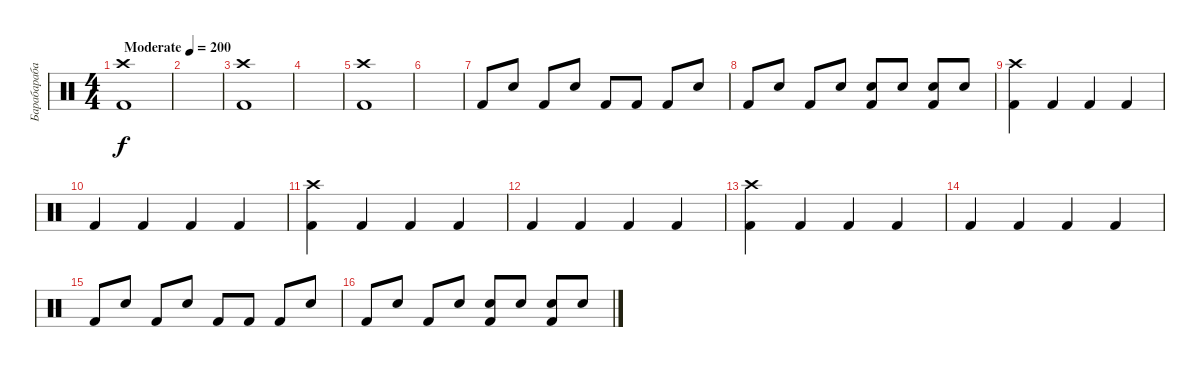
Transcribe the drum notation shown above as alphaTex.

\track ("Барабарабаны" "Барабараба") {instrument percussion}
\staff {score}
\articulation defaults
\ts (4 4)
\tempo (200 "Moderate")
\clef neutral
\ks c
("Crash high (hit)" "Kick (hit) 2").1{dy f} |
|
("Crash high (hit)" "Kick (hit) 2").1 |
|
("Crash high (hit)" "Kick (hit) 2").1 |
|
"Kick (hit) 2".8 "Electric Snare (hit)".8 "Kick (hit) 2".8 "Electric Snare (hit)".8 "Kick (hit) 2".8 "Kick (hit) 2".8 "Kick (hit) 2".8 "Electric Snare (hit)".8 |
"Kick (hit) 2".8 "Electric Snare (hit)".8 "Kick (hit) 2".8 "Electric Snare (hit)".8 ("Electric Snare (hit)" "Kick (hit) 2").8 "Electric Snare (hit)".8 ("Electric Snare (hit)" "Kick (hit) 2").8 "Electric Snare (hit)".8 |
("Crash high (hit)" "Kick (hit) 2").4 "Kick (hit) 2".4 "Kick (hit) 2".4 "Kick (hit) 2".4 |
"Kick (hit) 2".4 "Kick (hit) 2".4 "Kick (hit) 2".4 "Kick (hit) 2".4 |
("Crash high (hit)" "Kick (hit) 2").4 "Kick (hit) 2".4 "Kick (hit) 2".4 "Kick (hit) 2".4 |
"Kick (hit) 2".4 "Kick (hit) 2".4 "Kick (hit) 2".4 "Kick (hit) 2".4 |
("Crash high (hit)" "Kick (hit) 2").4 "Kick (hit) 2".4 "Kick (hit) 2".4 "Kick (hit) 2".4 |
"Kick (hit) 2".4 "Kick (hit) 2".4 "Kick (hit) 2".4 "Kick (hit) 2".4 |
"Kick (hit) 2".8 "Electric Snare (hit)".8 "Kick (hit) 2".8 "Electric Snare (hit)".8 "Kick (hit) 2".8 "Kick (hit) 2".8 "Kick (hit) 2".8 "Electric Snare (hit)".8 |
"Kick (hit) 2".8 "Electric Snare (hit)".8 "Kick (hit) 2".8 "Electric Snare (hit)".8 ("Electric Snare (hit)" "Kick (hit) 2").8 "Electric Snare (hit)".8 ("Electric Snare (hit)" "Kick (hit) 2").8 "Electric Snare (hit)".8
